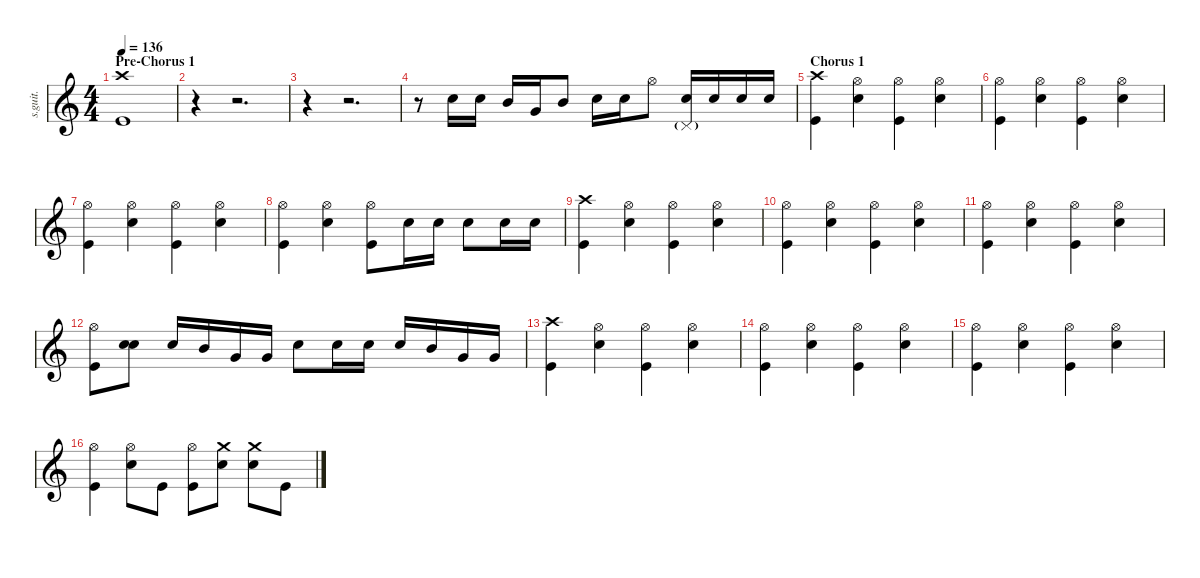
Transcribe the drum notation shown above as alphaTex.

\defaultSystemsLayout 4
\hideDynamics
\bracketExtendMode nobrackets
\track ("Ilan Rubin" "s.guit.") {instrument percussion}
\staff {score}
\articulation defaults
\ts (4 4)
\section ("" "Pre-Chorus 1")
\tempo 136
\clef g2
\ks c
("Crash high (hit)" "Kick (hit)").1{lyrics (0 "") lyrics (1 "") lyrics (2 "") lyrics (3 "") lyrics (4 "") dy f} |
r.4 r.2{d} |
r.4 r.2{d} |
r.8 "Electric Snare (hit)".16{lyrics (0 "") lyrics (1 "") lyrics (2 "") lyrics (3 "") lyrics (4 "")} "Electric Snare (hit)".16{lyrics (0 "") lyrics (1 "") lyrics (2 "") lyrics (3 "") lyrics (4 "")} "Mid Tom (hit)".16{lyrics (0 "") lyrics (1 "") lyrics (2 "") lyrics (3 "") lyrics (4 "")} "Very Low Tom (hit)".16{lyrics (0 "") lyrics (1 "") lyrics (2 "") lyrics (3 "") lyrics (4 "")} "Mid Tom (hit)".8{lyrics (0 "") lyrics (1 "") lyrics (2 "") lyrics (3 "") lyrics (4 "")} "Electric Snare (hit)".16{lyrics (0 "") lyrics (1 "") lyrics (2 "") lyrics (3 "") lyrics (4 "")} "Electric Snare (hit)".16{lyrics (0 "") lyrics (1 "") lyrics (2 "") lyrics (3 "") lyrics (4 "")} "Hi-Hat (open)".8{lyrics (0 "") lyrics (1 "") lyrics (2 "") lyrics (3 "") lyrics (4 "")} ("Electric Snare (hit)" "Pedal Hi-Hat (hit)"{g}).16{lyrics (0 "") lyrics (1 "") lyrics (2 "") lyrics (3 "") lyrics (4 "")} "Electric Snare (hit)".16{lyrics (0 "") lyrics (1 "") lyrics (2 "") lyrics (3 "") lyrics (4 "")} "Electric Snare (hit)".16{lyrics (0 "") lyrics (1 "") lyrics (2 "") lyrics (3 "") lyrics (4 "")} "Electric Snare (hit)".16{lyrics (0 "") lyrics (1 "") lyrics (2 "") lyrics (3 "") lyrics (4 "")} |
\section ("" "Chorus 1")
("Crash high (hit)" "Kick (hit)").4{lyrics (0 "") lyrics (1 "") lyrics (2 "") lyrics (3 "") lyrics (4 "")} ("Hi-Hat (open)" "Electric Snare (hit)").4{lyrics (0 "") lyrics (1 "") lyrics (2 "") lyrics (3 "") lyrics (4 "")} ("Hi-Hat (open)" "Kick (hit)").4{lyrics (0 "") lyrics (1 "") lyrics (2 "") lyrics (3 "") lyrics (4 "")} ("Hi-Hat (open)" "Electric Snare (hit)").4{lyrics (0 "") lyrics (1 "") lyrics (2 "") lyrics (3 "") lyrics (4 "")} |
("Hi-Hat (open)" "Kick (hit)").4{lyrics (0 "") lyrics (1 "") lyrics (2 "") lyrics (3 "") lyrics (4 "")} ("Hi-Hat (open)" "Electric Snare (hit)").4{lyrics (0 "") lyrics (1 "") lyrics (2 "") lyrics (3 "") lyrics (4 "")} ("Hi-Hat (open)" "Kick (hit)").4{lyrics (0 "") lyrics (1 "") lyrics (2 "") lyrics (3 "") lyrics (4 "")} ("Hi-Hat (open)" "Electric Snare (hit)").4{lyrics (0 "") lyrics (1 "") lyrics (2 "") lyrics (3 "") lyrics (4 "")} |
("Hi-Hat (open)" "Kick (hit)").4{lyrics (0 "") lyrics (1 "") lyrics (2 "") lyrics (3 "") lyrics (4 "")} ("Hi-Hat (open)" "Electric Snare (hit)").4{lyrics (0 "") lyrics (1 "") lyrics (2 "") lyrics (3 "") lyrics (4 "")} ("Hi-Hat (open)" "Kick (hit)").4{lyrics (0 "") lyrics (1 "") lyrics (2 "") lyrics (3 "") lyrics (4 "")} ("Hi-Hat (open)" "Electric Snare (hit)").4{lyrics (0 "") lyrics (1 "") lyrics (2 "") lyrics (3 "") lyrics (4 "")} |
("Hi-Hat (open)" "Kick (hit)").4{lyrics (0 "") lyrics (1 "") lyrics (2 "") lyrics (3 "") lyrics (4 "")} ("Hi-Hat (open)" "Electric Snare (hit)").4{lyrics (0 "") lyrics (1 "") lyrics (2 "") lyrics (3 "") lyrics (4 "")} ("Hi-Hat (open)" "Kick (hit)").8{lyrics (0 "") lyrics (1 "") lyrics (2 "") lyrics (3 "") lyrics (4 "")} "Electric Snare (hit)".16{lyrics (0 "") lyrics (1 "") lyrics (2 "") lyrics (3 "") lyrics (4 "")} "Electric Snare (hit)".16{lyrics (0 "") lyrics (1 "") lyrics (2 "") lyrics (3 "") lyrics (4 "")} "Electric Snare (hit)".8{lyrics (0 "") lyrics (1 "") lyrics (2 "") lyrics (3 "") lyrics (4 "")} "Electric Snare (hit)".16{lyrics (0 "") lyrics (1 "") lyrics (2 "") lyrics (3 "") lyrics (4 "")} "Electric Snare (hit)".16{lyrics (0 "") lyrics (1 "") lyrics (2 "") lyrics (3 "") lyrics (4 "")} |
("Crash high (hit)" "Kick (hit)").4{lyrics (0 "") lyrics (1 "") lyrics (2 "") lyrics (3 "") lyrics (4 "")} ("Hi-Hat (open)" "Electric Snare (hit)").4{lyrics (0 "") lyrics (1 "") lyrics (2 "") lyrics (3 "") lyrics (4 "")} ("Hi-Hat (open)" "Kick (hit)").4{lyrics (0 "") lyrics (1 "") lyrics (2 "") lyrics (3 "") lyrics (4 "")} ("Hi-Hat (open)" "Electric Snare (hit)").4{lyrics (0 "") lyrics (1 "") lyrics (2 "") lyrics (3 "") lyrics (4 "")} |
("Hi-Hat (open)" "Kick (hit)").4{lyrics (0 "") lyrics (1 "") lyrics (2 "") lyrics (3 "") lyrics (4 "")} ("Hi-Hat (open)" "Electric Snare (hit)").4{lyrics (0 "") lyrics (1 "") lyrics (2 "") lyrics (3 "") lyrics (4 "")} ("Hi-Hat (open)" "Kick (hit)").4{lyrics (0 "") lyrics (1 "") lyrics (2 "") lyrics (3 "") lyrics (4 "")} ("Hi-Hat (open)" "Electric Snare (hit)").4{lyrics (0 "") lyrics (1 "") lyrics (2 "") lyrics (3 "") lyrics (4 "")} |
("Hi-Hat (open)" "Kick (hit)").4{lyrics (0 "") lyrics (1 "") lyrics (2 "") lyrics (3 "") lyrics (4 "")} ("Hi-Hat (open)" "Electric Snare (hit)").4{lyrics (0 "") lyrics (1 "") lyrics (2 "") lyrics (3 "") lyrics (4 "")} ("Hi-Hat (open)" "Kick (hit)").4{lyrics (0 "") lyrics (1 "") lyrics (2 "") lyrics (3 "") lyrics (4 "")} ("Hi-Hat (open)" "Electric Snare (hit)").4{lyrics (0 "") lyrics (1 "") lyrics (2 "") lyrics (3 "") lyrics (4 "")} |
("Hi-Hat (open)" "Kick (hit)").8{lyrics (0 "") lyrics (1 "") lyrics (2 "") lyrics (3 "") lyrics (4 "")} ("Electric Snare (hit)" "Electric Snare (hit)").8{bd 30 lyrics (0 "") lyrics (1 "") lyrics (2 "") lyrics (3 "") lyrics (4 "")} "Electric Snare (hit)".16{lyrics (0 "") lyrics (1 "") lyrics (2 "") lyrics (3 "") lyrics (4 "")} "Mid Tom (hit)".16{lyrics (0 "") lyrics (1 "") lyrics (2 "") lyrics (3 "") lyrics (4 "")} "Very Low Tom (hit)".16{lyrics (0 "") lyrics (1 "") lyrics (2 "") lyrics (3 "") lyrics (4 "")} "Very Low Tom (hit)".16{lyrics (0 "") lyrics (1 "") lyrics (2 "") lyrics (3 "") lyrics (4 "")} "Electric Snare (hit)".8{lyrics (0 "") lyrics (1 "") lyrics (2 "") lyrics (3 "") lyrics (4 "")} "Electric Snare (hit)".16{lyrics (0 "") lyrics (1 "") lyrics (2 "") lyrics (3 "") lyrics (4 "")} "Electric Snare (hit)".16{lyrics (0 "") lyrics (1 "") lyrics (2 "") lyrics (3 "") lyrics (4 "")} "Electric Snare (hit)".16{lyrics (0 "") lyrics (1 "") lyrics (2 "") lyrics (3 "") lyrics (4 "")} "Mid Tom (hit)".16{lyrics (0 "") lyrics (1 "") lyrics (2 "") lyrics (3 "") lyrics (4 "")} "Very Low Tom (hit)".16{lyrics (0 "") lyrics (1 "") lyrics (2 "") lyrics (3 "") lyrics (4 "")} "Very Low Tom (hit)".16{lyrics (0 "") lyrics (1 "") lyrics (2 "") lyrics (3 "") lyrics (4 "")} |
("Crash high (hit)" "Kick (hit)").4{lyrics (0 "") lyrics (1 "") lyrics (2 "") lyrics (3 "") lyrics (4 "")} ("Hi-Hat (open)" "Electric Snare (hit)").4{lyrics (0 "") lyrics (1 "") lyrics (2 "") lyrics (3 "") lyrics (4 "")} ("Hi-Hat (open)" "Kick (hit)").4{lyrics (0 "") lyrics (1 "") lyrics (2 "") lyrics (3 "") lyrics (4 "")} ("Hi-Hat (open)" "Electric Snare (hit)").4{lyrics (0 "") lyrics (1 "") lyrics (2 "") lyrics (3 "") lyrics (4 "")} |
("Hi-Hat (open)" "Kick (hit)").4{lyrics (0 "") lyrics (1 "") lyrics (2 "") lyrics (3 "") lyrics (4 "")} ("Hi-Hat (open)" "Electric Snare (hit)").4{lyrics (0 "") lyrics (1 "") lyrics (2 "") lyrics (3 "") lyrics (4 "")} ("Hi-Hat (open)" "Kick (hit)").4{lyrics (0 "") lyrics (1 "") lyrics (2 "") lyrics (3 "") lyrics (4 "")} ("Hi-Hat (open)" "Electric Snare (hit)").4{lyrics (0 "") lyrics (1 "") lyrics (2 "") lyrics (3 "") lyrics (4 "")} |
("Hi-Hat (open)" "Kick (hit)").4{lyrics (0 "") lyrics (1 "") lyrics (2 "") lyrics (3 "") lyrics (4 "")} ("Hi-Hat (open)" "Electric Snare (hit)").4{lyrics (0 "") lyrics (1 "") lyrics (2 "") lyrics (3 "") lyrics (4 "")} ("Hi-Hat (open)" "Kick (hit)").4{lyrics (0 "") lyrics (1 "") lyrics (2 "") lyrics (3 "") lyrics (4 "")} ("Hi-Hat (open)" "Electric Snare (hit)").4{lyrics (0 "") lyrics (1 "") lyrics (2 "") lyrics (3 "") lyrics (4 "")} |
("Hi-Hat (open)" "Kick (hit)").4{lyrics (0 "") lyrics (1 "") lyrics (2 "") lyrics (3 "") lyrics (4 "")} ("Hi-Hat (open)" "Electric Snare (hit)").8{lyrics (0 "") lyrics (1 "") lyrics (2 "") lyrics (3 "") lyrics (4 "")} "Kick (hit)".8{lyrics (0 "") lyrics (1 "") lyrics (2 "") lyrics (3 "") lyrics (4 "") dy ff} ("Hi-Hat (open)" "Kick (hit)").8{lyrics (0 "") lyrics (1 "") lyrics (2 "") lyrics (3 "") lyrics (4 "")} ("Crash medium (hit)" "Electric Snare (hit)").8{lyrics (0 "") lyrics (1 "") lyrics (2 "") lyrics (3 "") lyrics (4 "") dy f} ("Crash medium (hit)" "Electric Snare (hit)").8{lyrics (0 "") lyrics (1 "") lyrics (2 "") lyrics (3 "") lyrics (4 "")} "Kick (hit)".8{lyrics (0 "") lyrics (1 "") lyrics (2 "") lyrics (3 "") lyrics (4 "") dy ff}
